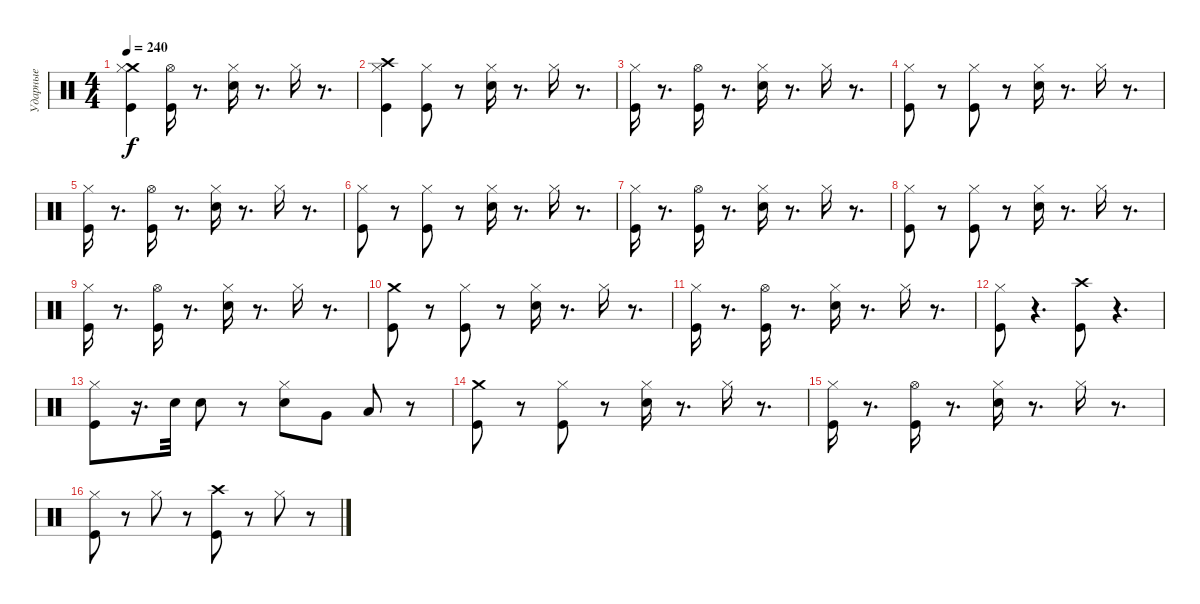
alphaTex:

\track ("Ударные" "Ударные") {instrument percussion}
\staff {score}
\articulation defaults
\ts (4 4)
\tempo 240
\clef neutral
\ks c
("Crash medium (hit)" "Kick (hit)" "Hi-Hat (closed)").4{dy f} ("Kick (hit)" "Hi-Hat (open)").16 r.8{d} ("Snare (hit) 2" "Hi-Hat (closed)").16 r.8{d} "Hi-Hat (closed)".16 r.8{d} |
("Crash high (hit)" "Hi-Hat (closed)" "Kick (hit)").4 ("Kick (hit)" "Hi-Hat (closed)").8 r.8 ("Snare (hit) 2" "Hi-Hat (closed)").16 r.8{d} "Hi-Hat (closed)".16 r.8{d} |
("Kick (hit)" "Hi-Hat (closed)").16 r.8{d} ("Kick (hit)" "Hi-Hat (open)").16 r.8{d} ("Snare (hit) 2" "Hi-Hat (closed)").16 r.8{d} "Hi-Hat (closed)".16 r.8{d} |
("Hi-Hat (closed)" "Kick (hit)").8 r.8 ("Kick (hit)" "Hi-Hat (closed)").8 r.8 ("Snare (hit) 2" "Hi-Hat (closed)").16 r.8{d} "Hi-Hat (closed)".16 r.8{d} |
("Kick (hit)" "Hi-Hat (closed)").16 r.8{d} ("Kick (hit)" "Hi-Hat (open)").16 r.8{d} ("Snare (hit) 2" "Hi-Hat (closed)").16 r.8{d} "Hi-Hat (closed)".16 r.8{d} |
("Hi-Hat (closed)" "Kick (hit)").8 r.8 ("Kick (hit)" "Hi-Hat (closed)").8 r.8 ("Snare (hit) 2" "Hi-Hat (closed)").16 r.8{d} "Hi-Hat (closed)".16 r.8{d} |
("Kick (hit)" "Hi-Hat (closed)").16 r.8{d} ("Kick (hit)" "Hi-Hat (open)").16 r.8{d} ("Snare (hit) 2" "Hi-Hat (closed)").16 r.8{d} "Hi-Hat (closed)".16 r.8{d} |
("Hi-Hat (closed)" "Kick (hit)").8 r.8 ("Kick (hit)" "Hi-Hat (closed)").8 r.8 ("Snare (hit) 2" "Hi-Hat (closed)").16 r.8{d} "Hi-Hat (closed)".16 r.8{d} |
("Kick (hit)" "Hi-Hat (closed)").16 r.8{d} ("Kick (hit)" "Hi-Hat (open)").16 r.8{d} ("Snare (hit) 2" "Hi-Hat (closed)").16 r.8{d} "Hi-Hat (closed)".16 r.8{d} |
("Crash medium (hit)" "Kick (hit)").8 r.8 ("Kick (hit)" "Hi-Hat (closed)").8 r.8 ("Snare (hit) 2" "Hi-Hat (closed)").16 r.8{d} "Hi-Hat (closed)".16 r.8{d} |
("Kick (hit)" "Hi-Hat (closed)").16 r.8{d} ("Kick (hit)" "Hi-Hat (open)").16 r.8{d} ("Snare (hit) 2" "Hi-Hat (closed)").16 r.8{d} "Hi-Hat (closed)".16 r.8{d} |
("Hi-Hat (closed)" "Kick (hit)").8 r.4{d} ("Kick (hit)" "Crash high (hit)").8 r.4{d} |
("Kick (hit)" "Hi-Hat (closed)").8 r.16{d} "Snare (hit) 2".32 "Snare (hit) 2".8 r.8 ("Hi-Hat (closed)" "Snare (hit) 2").8 "Very Low Tom (hit)".8 "Low Tom (hit)".8 r.8 |
("Crash medium (hit)" "Kick (hit)").8 r.8 ("Kick (hit)" "Hi-Hat (closed)").8 r.8 ("Snare (hit) 2" "Hi-Hat (closed)").16 r.8{d} "Hi-Hat (closed)".16 r.8{d} |
("Kick (hit)" "Hi-Hat (closed)").16 r.8{d} ("Kick (hit)" "Hi-Hat (open)").16 r.8{d} ("Snare (hit) 2" "Hi-Hat (closed)").16 r.8{d} "Hi-Hat (closed)".16 r.8{d} |
("Hi-Hat (closed)" "Kick (hit)").8 r.8 "Hi-Hat (closed)".8 r.8 ("Kick (hit)" "Crash high (hit)").8 r.8 "Hi-Hat (closed)".8 r.8
